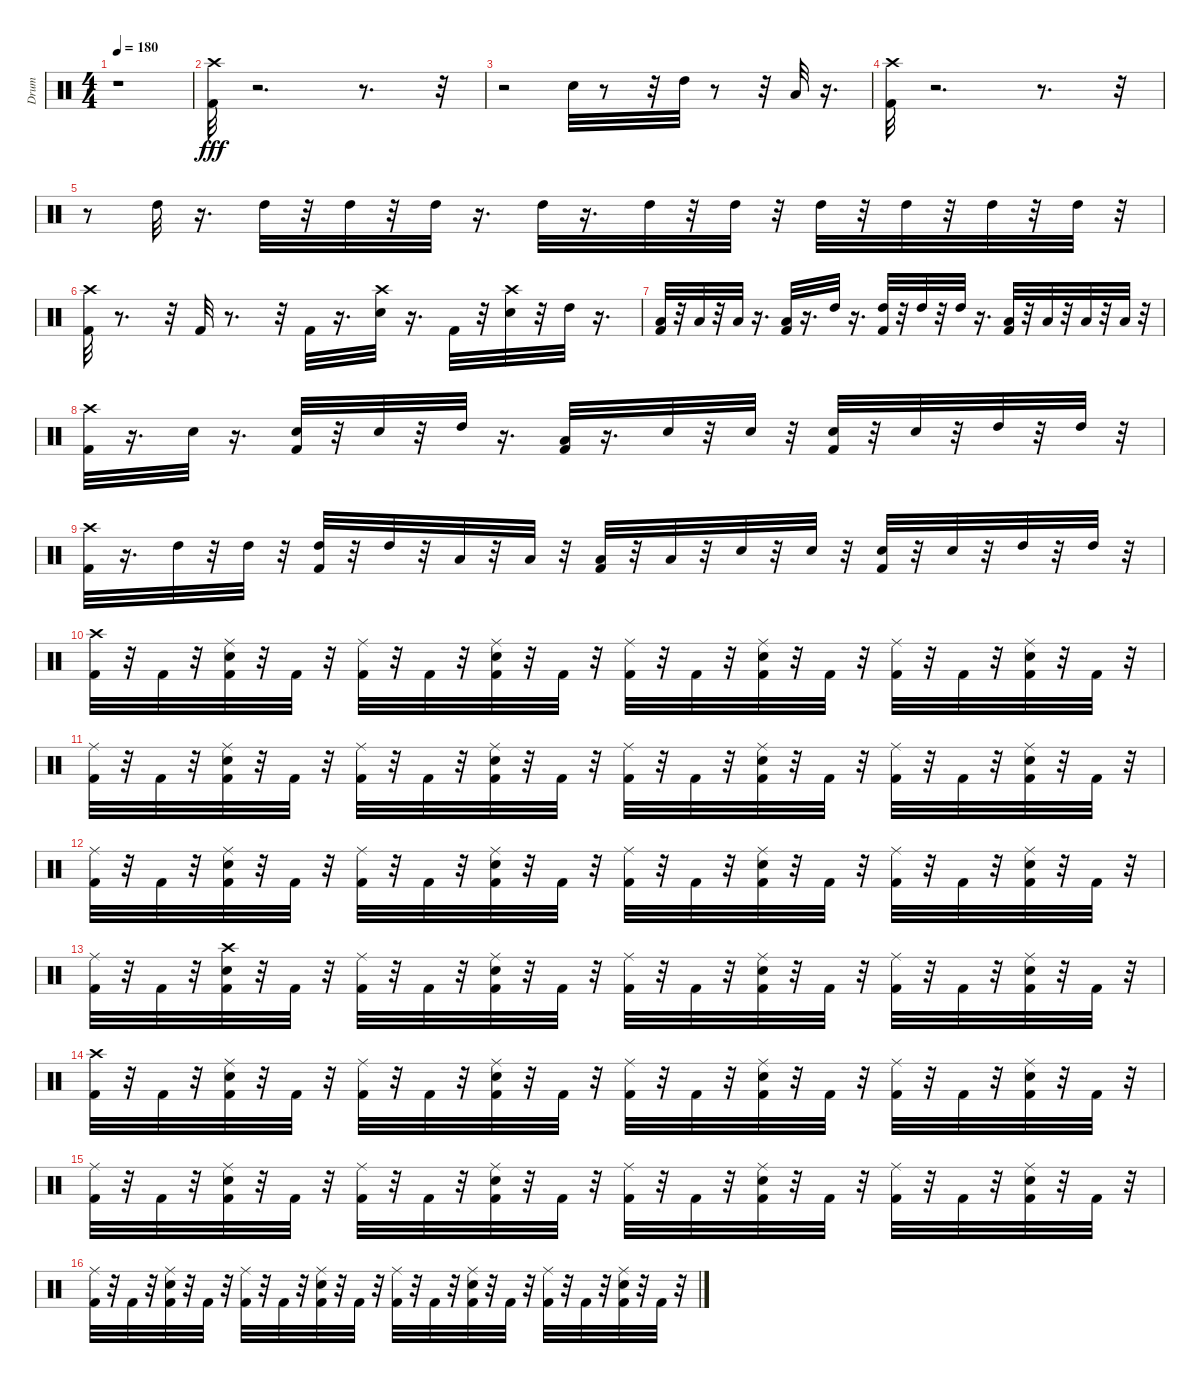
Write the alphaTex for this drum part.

\track ("Drum" "Drum") {instrument percussion}
\staff {score}
\articulation defaults
\ts (4 4)
\tempo 180
\clef neutral
\ks c
r.1{dy fff} |
("Kick (hit) 2" "Crash high (hit)").32 r.2{d} r.8{d} r.32 |
r.2 "Snare (hit) 2".32 r.8 r.32 "High Tom (hit)".32 r.8 r.32 "Low Tom (hit)".32 r.16{d} |
("Crash high (hit)" "Kick (hit) 2").32 r.2{d} r.8{d} r.32 |
r.8 "High Tom (hit)".32 r.16{d} "High Tom (hit)".32 r.32 "High Tom (hit)".32 r.32 "High Tom (hit)".32 r.16{d} "High Tom (hit)".32 r.16{d} "High Tom (hit)".32 r.32 "High Tom (hit)".32 r.32 "High Tom (hit)".32 r.32 "High Tom (hit)".32 r.32 "High Tom (hit)".32 r.32 "High Tom (hit)".32 r.32 |
("Kick (hit) 2" "Crash high (hit)").32 r.8{d} r.32 "Kick (hit) 2".32 r.8{d} r.32 "Kick (hit) 2".32 r.16{d} ("Crash high (hit)" "Snare (hit) 2").32 r.16{d} "Kick (hit) 2".32 r.32 ("Snare (hit) 2" "Crash high (hit)").32 r.32 "High Tom (hit)".32 r.16{d} |
("Kick (hit) 2" "Low Floor Tom (hit)").32 r.32 "Low Floor Tom (hit)".32 r.32 "Low Floor Tom (hit)".32 r.16{d} ("Kick (hit) 2" "Low Floor Tom (hit)").32 r.16{d} "High Tom (hit)".32 r.16{d} ("Kick (hit) 2" "High Tom (hit)").32 r.32 "High Tom (hit)".32 r.32 "High Tom (hit)".32 r.16{d} ("Kick (hit) 2" "Low Tom (hit)").32 r.32 "Low Tom (hit)".32 r.32 "Low Floor Tom (hit)".32 r.32 "Low Floor Tom (hit)".32 r.32 |
("Kick (hit) 2" "Crash high (hit)").32 r.16{d} "Snare (hit) 2".32 r.16{d} ("Kick (hit) 2" "Snare (hit) 2").32 r.32 "Snare (hit) 2".32 r.32 "High Tom (hit)".32 r.16{d} ("Kick (hit) 2" "Low Tom (hit)").32 r.16{d} "Snare (hit) 2".32 r.32 "Snare (hit) 2".32 r.32 ("Kick (hit) 2" "Snare (hit) 2").32 r.32 "Snare (hit) 2".32 r.32 "High Tom (hit)".32 r.32 "High Tom (hit)".32 r.32 |
("Kick (hit) 2" "Crash high (hit)").32 r.16{d} "High Tom (hit)".32 r.32 "High Tom (hit)".32 r.32 ("High Tom (hit)" "Kick (hit) 2").32 r.32 "High Tom (hit)".32 r.32 "Low Tom (hit)".32 r.32 "Low Tom (hit)".32 r.32 ("Low Tom (hit)" "Kick (hit) 2").32 r.32 "Low Tom (hit)".32 r.32 "Snare (hit) 2".32 r.32 "Snare (hit) 2".32 r.32 ("Snare (hit) 2" "Kick (hit) 2").32 r.32 "Snare (hit) 2".32 r.32 "High Tom (hit)".32 r.32 "High Tom (hit)".32 r.32 |
("Kick (hit) 2" "Crash high (hit)").32 r.32 "Kick (hit) 2".32 r.32 ("Kick (hit) 2" "Ride (middle)" "Snare (hit) 2").32 r.32 "Kick (hit) 2".32 r.32 ("Kick (hit) 2" "Ride (middle)").32 r.32 "Kick (hit) 2".32 r.32 ("Kick (hit) 2" "Ride (middle)" "Snare (hit) 2").32 r.32 "Kick (hit) 2".32 r.32 ("Kick (hit) 2" "Ride (middle)").32 r.32 "Kick (hit) 2".32 r.32 ("Kick (hit) 2" "Ride (middle)" "Snare (hit) 2").32 r.32 "Kick (hit) 2".32 r.32 ("Kick (hit) 2" "Ride (middle)").32 r.32 "Kick (hit) 2".32 r.32 ("Kick (hit) 2" "Ride (middle)" "Snare (hit) 2").32 r.32 "Kick (hit) 2".32 r.32 |
("Kick (hit) 2" "Ride (middle)").32 r.32 "Kick (hit) 2".32 r.32 ("Kick (hit) 2" "Snare (hit) 2" "Ride (middle)").32 r.32 "Kick (hit) 2".32 r.32 ("Kick (hit) 2" "Ride (middle)").32 r.32 "Kick (hit) 2".32 r.32 ("Kick (hit) 2" "Snare (hit) 2" "Ride (middle)").32 r.32 "Kick (hit) 2".32 r.32 ("Kick (hit) 2" "Ride (middle)").32 r.32 "Kick (hit) 2".32 r.32 ("Kick (hit) 2" "Snare (hit) 2" "Ride (middle)").32 r.32 "Kick (hit) 2".32 r.32 ("Kick (hit) 2" "Ride (middle)").32 r.32 "Kick (hit) 2".32 r.32 ("Kick (hit) 2" "Snare (hit) 2" "Ride (middle)").32 r.32 "Kick (hit) 2".32 r.32 |
("Kick (hit) 2" "Ride (middle)").32 r.32 "Kick (hit) 2".32 r.32 ("Kick (hit) 2" "Snare (hit) 2" "Ride (middle)").32 r.32 "Kick (hit) 2".32 r.32 ("Kick (hit) 2" "Ride (middle)").32 r.32 "Kick (hit) 2".32 r.32 ("Kick (hit) 2" "Snare (hit) 2" "Ride (middle)").32 r.32 "Kick (hit) 2".32 r.32 ("Kick (hit) 2" "Ride (middle)").32 r.32 "Kick (hit) 2".32 r.32 ("Kick (hit) 2" "Snare (hit) 2" "Ride (middle)").32 r.32 "Kick (hit) 2".32 r.32 ("Kick (hit) 2" "Ride (middle)").32 r.32 "Kick (hit) 2".32 r.32 ("Kick (hit) 2" "Snare (hit) 2" "Ride (middle)").32 r.32 "Kick (hit) 2".32 r.32 |
("Kick (hit) 2" "Ride (middle)").32 r.32 "Kick (hit) 2".32 r.32 ("Kick (hit) 2" "Snare (hit) 2" "Crash high (hit)").32 r.32 "Kick (hit) 2".32 r.32 ("Kick (hit) 2" "Ride (middle)").32 r.32 "Kick (hit) 2".32 r.32 ("Kick (hit) 2" "Snare (hit) 2" "Ride (middle)").32 r.32 "Kick (hit) 2".32 r.32 ("Kick (hit) 2" "Ride (middle)").32 r.32 "Kick (hit) 2".32 r.32 ("Kick (hit) 2" "Snare (hit) 2" "Ride (middle)").32 r.32 "Kick (hit) 2".32 r.32 ("Kick (hit) 2" "Ride (middle)").32 r.32 "Kick (hit) 2".32 r.32 ("Kick (hit) 2" "Snare (hit) 2" "Ride (middle)").32 r.32 "Kick (hit) 2".32 r.32 |
("Kick (hit) 2" "Crash high (hit)").32 r.32 "Kick (hit) 2".32 r.32 ("Kick (hit) 2" "Ride (middle)" "Snare (hit) 2").32 r.32 "Kick (hit) 2".32 r.32 ("Kick (hit) 2" "Ride (middle)").32 r.32 "Kick (hit) 2".32 r.32 ("Kick (hit) 2" "Ride (middle)" "Snare (hit) 2").32 r.32 "Kick (hit) 2".32 r.32 ("Kick (hit) 2" "Ride (middle)").32 r.32 "Kick (hit) 2".32 r.32 ("Kick (hit) 2" "Ride (middle)" "Snare (hit) 2").32 r.32 "Kick (hit) 2".32 r.32 ("Kick (hit) 2" "Ride (middle)").32 r.32 "Kick (hit) 2".32 r.32 ("Kick (hit) 2" "Ride (middle)" "Snare (hit) 2").32 r.32 "Kick (hit) 2".32 r.32 |
("Kick (hit) 2" "Ride (middle)").32 r.32 "Kick (hit) 2".32 r.32 ("Kick (hit) 2" "Snare (hit) 2" "Ride (middle)").32 r.32 "Kick (hit) 2".32 r.32 ("Kick (hit) 2" "Ride (middle)").32 r.32 "Kick (hit) 2".32 r.32 ("Kick (hit) 2" "Snare (hit) 2" "Ride (middle)").32 r.32 "Kick (hit) 2".32 r.32 ("Kick (hit) 2" "Ride (middle)").32 r.32 "Kick (hit) 2".32 r.32 ("Kick (hit) 2" "Snare (hit) 2" "Ride (middle)").32 r.32 "Kick (hit) 2".32 r.32 ("Kick (hit) 2" "Ride (middle)").32 r.32 "Kick (hit) 2".32 r.32 ("Kick (hit) 2" "Snare (hit) 2" "Ride (middle)").32 r.32 "Kick (hit) 2".32 r.32 |
("Kick (hit) 2" "Ride (middle)").32 r.32 "Kick (hit) 2".32 r.32 ("Kick (hit) 2" "Snare (hit) 2" "Ride (middle)").32 r.32 "Kick (hit) 2".32 r.32 ("Kick (hit) 2" "Ride (middle)").32 r.32 "Kick (hit) 2".32 r.32 ("Kick (hit) 2" "Snare (hit) 2" "Ride (middle)").32 r.32 "Kick (hit) 2".32 r.32 ("Kick (hit) 2" "Ride (middle)").32 r.32 "Kick (hit) 2".32 r.32 ("Kick (hit) 2" "Snare (hit) 2" "Ride (middle)").32 r.32 "Kick (hit) 2".32 r.32 ("Kick (hit) 2" "Ride (middle)").32 r.32 "Kick (hit) 2".32 r.32 ("Kick (hit) 2" "Snare (hit) 2" "Ride (middle)").32 r.32 "Kick (hit) 2".32 r.32
